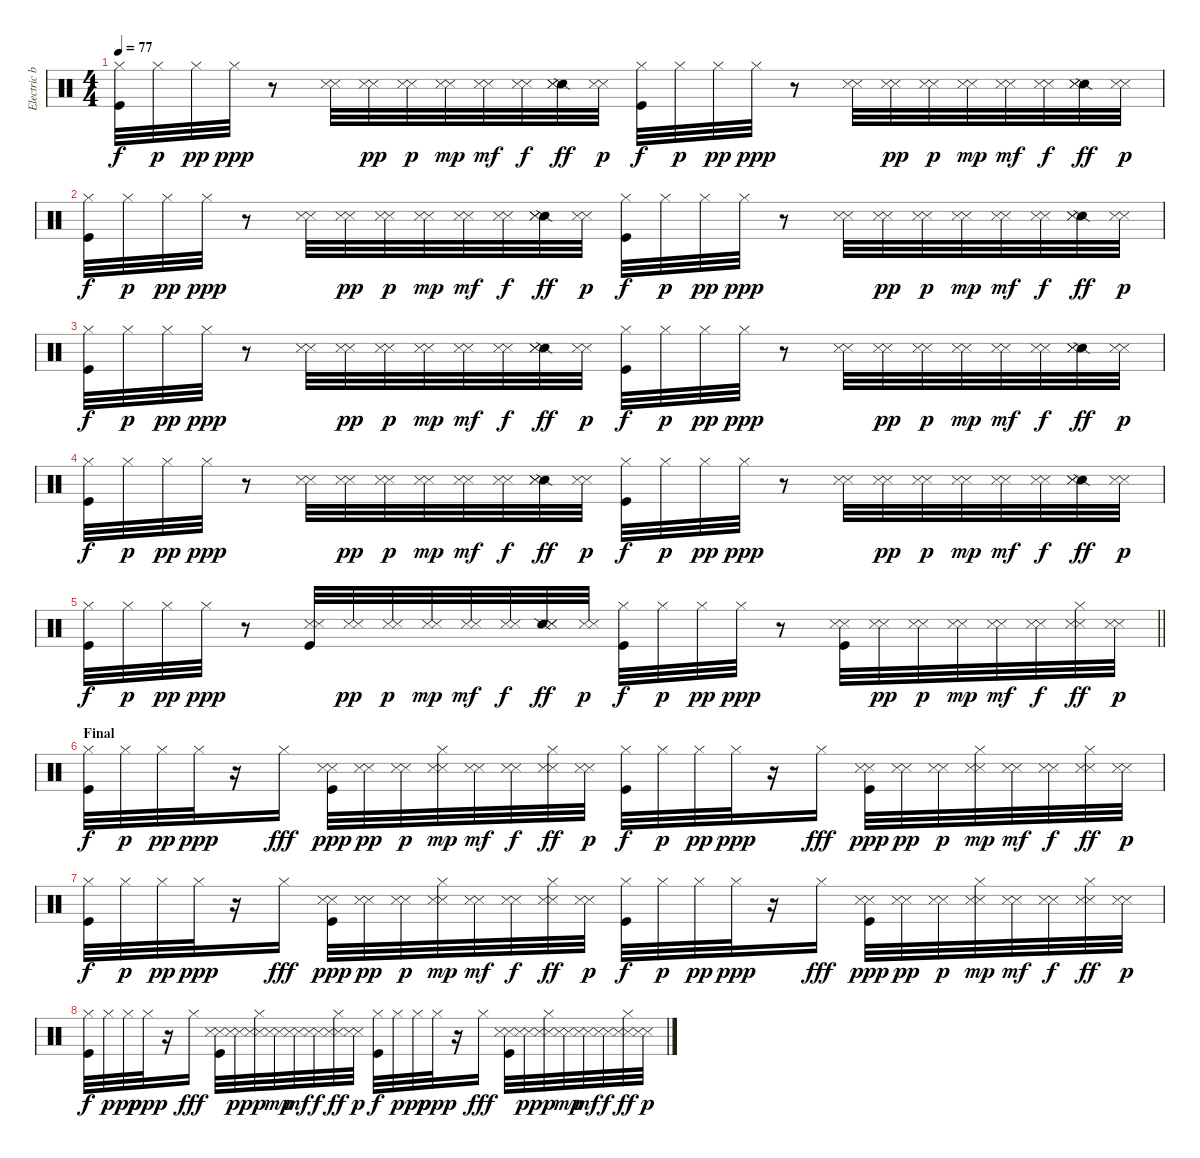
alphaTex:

\track ("Electric beat" "Electric b") {instrument percussion}
\staff {score}
\articulation defaults
\ts (4 4)
\tempo 77
\clef neutral
\ks c
("Hi-Hat (closed)" "Kick (hit)").32{dy f} "Hi-Hat (closed)".32{dy p} "Hi-Hat (closed)".32{dy pp} "Hi-Hat (closed)".32{dy ppp} r.8 ("Snare (side stick) 3" "Metronome (hit)").32 ("Snare (side stick) 3" "Metronome (hit)").32{dy pp} ("Snare (side stick) 3" "Metronome (hit)").32{dy p} ("Snare (side stick) 3" "Metronome (hit)").32{dy mp} ("Snare (side stick) 3" "Metronome (hit)").32{dy mf} ("Snare (side stick) 3" "Metronome (hit)").32{dy f} ("Snare (side stick) 2" "Snare (side stick) 3" "Metronome (hit)").32{dy ff} ("Snare (side stick) 3" "Metronome (hit)").32{dy p} ("Hi-Hat (closed)" "Kick (hit)").32{dy f} "Hi-Hat (closed)".32{dy p} "Hi-Hat (closed)".32{dy pp} "Hi-Hat (closed)".32{dy ppp} r.8 ("Snare (side stick) 3" "Metronome (hit)").32 ("Snare (side stick) 3" "Metronome (hit)").32{dy pp} ("Snare (side stick) 3" "Metronome (hit)").32{dy p} ("Snare (side stick) 3" "Metronome (hit)").32{dy mp} ("Snare (side stick) 3" "Metronome (hit)").32{dy mf} ("Snare (side stick) 3" "Metronome (hit)").32{dy f} ("Snare (side stick) 2" "Snare (side stick) 3" "Metronome (hit)").32{dy ff} ("Snare (side stick) 3" "Metronome (hit)").32{dy p} |
("Hi-Hat (closed)" "Kick (hit)").32{dy f} "Hi-Hat (closed)".32{dy p} "Hi-Hat (closed)".32{dy pp} "Hi-Hat (closed)".32{dy ppp} r.8 ("Snare (side stick) 3" "Metronome (hit)").32 ("Snare (side stick) 3" "Metronome (hit)").32{dy pp} ("Snare (side stick) 3" "Metronome (hit)").32{dy p} ("Snare (side stick) 3" "Metronome (hit)").32{dy mp} ("Snare (side stick) 3" "Metronome (hit)").32{dy mf} ("Snare (side stick) 3" "Metronome (hit)").32{dy f} ("Snare (side stick) 2" "Snare (side stick) 3" "Metronome (hit)").32{dy ff} ("Snare (side stick) 3" "Metronome (hit)").32{dy p} ("Hi-Hat (closed)" "Kick (hit)").32{dy f} "Hi-Hat (closed)".32{dy p} "Hi-Hat (closed)".32{dy pp} "Hi-Hat (closed)".32{dy ppp} r.8 ("Snare (side stick) 3" "Metronome (hit)").32 ("Snare (side stick) 3" "Metronome (hit)").32{dy pp} ("Snare (side stick) 3" "Metronome (hit)").32{dy p} ("Snare (side stick) 3" "Metronome (hit)").32{dy mp} ("Snare (side stick) 3" "Metronome (hit)").32{dy mf} ("Snare (side stick) 3" "Metronome (hit)").32{dy f} ("Snare (side stick) 2" "Snare (side stick) 3" "Metronome (hit)").32{dy ff} ("Snare (side stick) 3" "Metronome (hit)").32{dy p} |
("Hi-Hat (closed)" "Kick (hit)").32{dy f} "Hi-Hat (closed)".32{dy p} "Hi-Hat (closed)".32{dy pp} "Hi-Hat (closed)".32{dy ppp} r.8 ("Snare (side stick) 3" "Metronome (hit)").32 ("Snare (side stick) 3" "Metronome (hit)").32{dy pp} ("Snare (side stick) 3" "Metronome (hit)").32{dy p} ("Snare (side stick) 3" "Metronome (hit)").32{dy mp} ("Snare (side stick) 3" "Metronome (hit)").32{dy mf} ("Snare (side stick) 3" "Metronome (hit)").32{dy f} ("Snare (side stick) 2" "Snare (side stick) 3" "Metronome (hit)").32{dy ff} ("Snare (side stick) 3" "Metronome (hit)").32{dy p} ("Hi-Hat (closed)" "Kick (hit)").32{dy f} "Hi-Hat (closed)".32{dy p} "Hi-Hat (closed)".32{dy pp} "Hi-Hat (closed)".32{dy ppp} r.8 ("Snare (side stick) 3" "Metronome (hit)").32 ("Snare (side stick) 3" "Metronome (hit)").32{dy pp} ("Snare (side stick) 3" "Metronome (hit)").32{dy p} ("Snare (side stick) 3" "Metronome (hit)").32{dy mp} ("Snare (side stick) 3" "Metronome (hit)").32{dy mf} ("Snare (side stick) 3" "Metronome (hit)").32{dy f} ("Snare (side stick) 2" "Snare (side stick) 3" "Metronome (hit)").32{dy ff} ("Snare (side stick) 3" "Metronome (hit)").32{dy p} |
("Hi-Hat (closed)" "Kick (hit)").32{dy f} "Hi-Hat (closed)".32{dy p} "Hi-Hat (closed)".32{dy pp} "Hi-Hat (closed)".32{dy ppp} r.8 ("Snare (side stick) 3" "Metronome (hit)").32 ("Snare (side stick) 3" "Metronome (hit)").32{dy pp} ("Snare (side stick) 3" "Metronome (hit)").32{dy p} ("Snare (side stick) 3" "Metronome (hit)").32{dy mp} ("Snare (side stick) 3" "Metronome (hit)").32{dy mf} ("Snare (side stick) 3" "Metronome (hit)").32{dy f} ("Snare (side stick) 2" "Snare (side stick) 3" "Metronome (hit)").32{dy ff} ("Snare (side stick) 3" "Metronome (hit)").32{dy p} ("Hi-Hat (closed)" "Kick (hit)").32{dy f} "Hi-Hat (closed)".32{dy p} "Hi-Hat (closed)".32{dy pp} "Hi-Hat (closed)".32{dy ppp} r.8 ("Snare (side stick) 3" "Metronome (hit)").32 ("Snare (side stick) 3" "Metronome (hit)").32{dy pp} ("Snare (side stick) 3" "Metronome (hit)").32{dy p} ("Snare (side stick) 3" "Metronome (hit)").32{dy mp} ("Snare (side stick) 3" "Metronome (hit)").32{dy mf} ("Snare (side stick) 3" "Metronome (hit)").32{dy f} ("Snare (side stick) 2" "Snare (side stick) 3" "Metronome (hit)").32{dy ff} ("Snare (side stick) 3" "Metronome (hit)").32{dy p} |
\barLineRight lightlight
("Hi-Hat (closed)" "Kick (hit)").32{dy f} "Hi-Hat (closed)".32{dy p} "Hi-Hat (closed)".32{dy pp} "Hi-Hat (closed)".32{dy ppp} r.8 ("Snare (side stick) 3" "Metronome (hit)" "Kick (hit)").32 ("Snare (side stick) 3" "Metronome (hit)").32{dy pp} ("Snare (side stick) 3" "Metronome (hit)").32{dy p} ("Snare (side stick) 3" "Metronome (hit)").32{dy mp} ("Snare (side stick) 3" "Metronome (hit)").32{dy mf} ("Snare (side stick) 3" "Metronome (hit)").32{dy f} ("Snare (side stick) 2" "Snare (side stick) 3" "Metronome (hit)").32{dy ff} ("Snare (side stick) 3" "Metronome (hit)").32{dy p} ("Hi-Hat (closed)" "Kick (hit)").32{dy f} "Hi-Hat (closed)".32{dy p} "Hi-Hat (closed)".32{dy pp} "Hi-Hat (closed)".32{dy ppp} r.8 ("Snare (side stick) 3" "Metronome (hit)" "Kick (hit)").32 ("Snare (side stick) 3" "Metronome (hit)").32{dy pp} ("Snare (side stick) 3" "Metronome (hit)").32{dy p} ("Snare (side stick) 3" "Metronome (hit)").32{dy mp} ("Snare (side stick) 3" "Metronome (hit)").32{dy mf} ("Snare (side stick) 3" "Metronome (hit)").32{dy f} ("Hi-Hat (closed)" "Snare (side stick) 3" "Metronome (hit)").32{dy ff} ("Snare (side stick) 3" "Metronome (hit)").32{dy p} |
\section ("" "Final")
("Hi-Hat (closed)" "Kick (hit)").32{dy f} "Hi-Hat (closed)".32{dy p} "Hi-Hat (closed)".32{dy pp} "Hi-Hat (closed)".32{dy ppp} r.16 "Hi-Hat (closed)".16{dy fff} ("Snare (side stick) 3" "Metronome (hit)" "Kick (hit)").32{dy ppp} ("Snare (side stick) 3" "Metronome (hit)").32{dy pp} ("Snare (side stick) 3" "Metronome (hit)").32{dy p} ("Hi-Hat (closed)" "Snare (side stick) 3" "Metronome (hit)").32{dy mp} ("Snare (side stick) 3" "Metronome (hit)").32{dy mf} ("Snare (side stick) 3" "Metronome (hit)").32{dy f} ("Hi-Hat (closed)" "Snare (side stick) 3" "Metronome (hit)").32{dy ff} ("Snare (side stick) 3" "Metronome (hit)").32{dy p} ("Hi-Hat (closed)" "Kick (hit)").32{dy f} "Hi-Hat (closed)".32{dy p} "Hi-Hat (closed)".32{dy pp} "Hi-Hat (closed)".32{dy ppp} r.16 "Hi-Hat (closed)".16{dy fff} ("Snare (side stick) 3" "Metronome (hit)" "Kick (hit)").32{dy ppp} ("Snare (side stick) 3" "Metronome (hit)").32{dy pp} ("Snare (side stick) 3" "Metronome (hit)").32{dy p} ("Hi-Hat (closed)" "Snare (side stick) 3" "Metronome (hit)").32{dy mp} ("Snare (side stick) 3" "Metronome (hit)").32{dy mf} ("Snare (side stick) 3" "Metronome (hit)").32{dy f} ("Hi-Hat (closed)" "Snare (side stick) 3" "Metronome (hit)").32{dy ff} ("Snare (side stick) 3" "Metronome (hit)").32{dy p} |
("Hi-Hat (closed)" "Kick (hit)").32{dy f} "Hi-Hat (closed)".32{dy p} "Hi-Hat (closed)".32{dy pp} "Hi-Hat (closed)".32{dy ppp} r.16 "Hi-Hat (closed)".16{dy fff} ("Snare (side stick) 3" "Metronome (hit)" "Kick (hit)").32{dy ppp} ("Snare (side stick) 3" "Metronome (hit)").32{dy pp} ("Snare (side stick) 3" "Metronome (hit)").32{dy p} ("Hi-Hat (closed)" "Snare (side stick) 3" "Metronome (hit)").32{dy mp} ("Snare (side stick) 3" "Metronome (hit)").32{dy mf} ("Snare (side stick) 3" "Metronome (hit)").32{dy f} ("Hi-Hat (closed)" "Snare (side stick) 3" "Metronome (hit)").32{dy ff} ("Snare (side stick) 3" "Metronome (hit)").32{dy p} ("Hi-Hat (closed)" "Kick (hit)").32{dy f} "Hi-Hat (closed)".32{dy p} "Hi-Hat (closed)".32{dy pp} "Hi-Hat (closed)".32{dy ppp} r.16 "Hi-Hat (closed)".16{dy fff} ("Snare (side stick) 3" "Metronome (hit)" "Kick (hit)").32{dy ppp} ("Snare (side stick) 3" "Metronome (hit)").32{dy pp} ("Snare (side stick) 3" "Metronome (hit)").32{dy p} ("Hi-Hat (closed)" "Snare (side stick) 3" "Metronome (hit)").32{dy mp} ("Snare (side stick) 3" "Metronome (hit)").32{dy mf} ("Snare (side stick) 3" "Metronome (hit)").32{dy f} ("Hi-Hat (closed)" "Snare (side stick) 3" "Metronome (hit)").32{dy ff} ("Snare (side stick) 3" "Metronome (hit)").32{dy p} |
("Hi-Hat (closed)" "Kick (hit)").32{dy f} "Hi-Hat (closed)".32{dy p} "Hi-Hat (closed)".32{dy pp} "Hi-Hat (closed)".32{dy ppp} r.16 "Hi-Hat (closed)".16{dy fff} ("Snare (side stick) 3" "Metronome (hit)" "Kick (hit)").32 ("Snare (side stick) 3" "Metronome (hit)").32{dy pp} ("Hi-Hat (closed)" "Snare (side stick) 3" "Metronome (hit)").32{dy p} ("Snare (side stick) 3" "Metronome (hit)").32{dy mp} ("Snare (side stick) 3" "Metronome (hit)").32{dy mf} ("Snare (side stick) 3" "Metronome (hit)").32{dy f} ("Hi-Hat (closed)" "Snare (side stick) 3" "Metronome (hit)").32{dy ff} ("Snare (side stick) 3" "Metronome (hit)").32{dy p} ("Hi-Hat (closed)" "Kick (hit)").32{dy f} "Hi-Hat (closed)".32{dy p} "Hi-Hat (closed)".32{dy pp} "Hi-Hat (closed)".32{dy ppp} r.16 "Hi-Hat (closed)".16{dy fff} ("Snare (side stick) 3" "Metronome (hit)" "Kick (hit)").32 ("Snare (side stick) 3" "Metronome (hit)").32{dy pp} ("Hi-Hat (closed)" "Snare (side stick) 3" "Metronome (hit)").32{dy p} ("Snare (side stick) 3" "Metronome (hit)").32{dy mp} ("Snare (side stick) 3" "Metronome (hit)").32{dy mf} ("Snare (side stick) 3" "Metronome (hit)").32{dy f} ("Hi-Hat (closed)" "Snare (side stick) 3" "Metronome (hit)").32{dy ff} ("Snare (side stick) 3" "Metronome (hit)").32{dy p}
